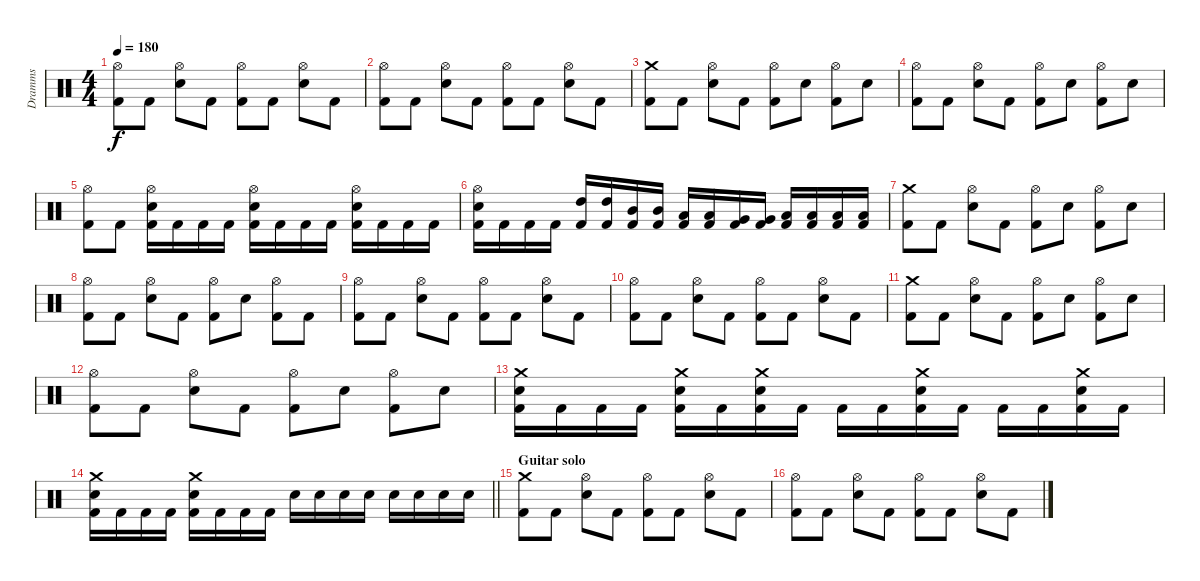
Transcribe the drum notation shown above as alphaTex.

\track ("Dramms" "Dramms") {instrument percussion}
\staff {score}
\articulation defaults
\ts (4 4)
\tempo 180
\clef neutral
\ks c
("Hi-Hat (open)" "Kick (hit) 2").8{dy f} "Kick (hit) 2".8 ("Hi-Hat (open)" "Electric Snare (hit)").8 "Kick (hit) 2".8 ("Hi-Hat (open)" "Kick (hit) 2").8 "Kick (hit) 2".8 ("Hi-Hat (open)" "Electric Snare (hit)").8 "Kick (hit) 2".8 |
("Hi-Hat (open)" "Kick (hit) 2").8 "Kick (hit) 2".8 ("Hi-Hat (open)" "Electric Snare (hit)").8 "Kick (hit) 2".8 ("Hi-Hat (open)" "Kick (hit) 2").8 "Kick (hit) 2".8 ("Hi-Hat (open)" "Electric Snare (hit)").8 "Kick (hit) 2".8 |
("Crash medium (hit)" "Kick (hit) 2").8 "Kick (hit) 2".8 ("Hi-Hat (open)" "Electric Snare (hit)").8 "Kick (hit) 2".8 ("Hi-Hat (open)" "Kick (hit) 2").8 "Electric Snare (hit)".8 ("Hi-Hat (open)" "Kick (hit) 2").8 "Electric Snare (hit)".8 |
("Hi-Hat (open)" "Kick (hit) 2").8 "Kick (hit) 2".8 ("Hi-Hat (open)" "Electric Snare (hit)").8 "Kick (hit) 2".8 ("Hi-Hat (open)" "Kick (hit) 2").8 "Electric Snare (hit)".8 ("Hi-Hat (open)" "Kick (hit) 2").8 "Electric Snare (hit)".8 |
("Hi-Hat (open)" "Kick (hit) 2").8 "Kick (hit) 2".8 ("Hi-Hat (open)" "Electric Snare (hit)" "Kick (hit) 2").16 "Kick (hit) 2".16 "Kick (hit) 2".16 "Kick (hit) 2".16 ("Hi-Hat (open)" "Electric Snare (hit)" "Kick (hit) 2").16 "Kick (hit) 2".16 "Kick (hit) 2".16 "Kick (hit) 2".16 ("Hi-Hat (open)" "Electric Snare (hit)" "Kick (hit) 2").16 "Kick (hit) 2".16 "Kick (hit) 2".16 "Kick (hit) 2".16 |
("Hi-Hat (open)" "Electric Snare (hit)" "Kick (hit) 2").16 "Kick (hit) 2".16 "Kick (hit) 2".16 "Kick (hit) 2".16 ("High Tom (hit)" "Kick (hit) 2").16 ("High Tom (hit)" "Kick (hit) 2").16 ("Mid Tom (hit)" "Kick (hit) 2").16 ("Mid Tom (hit)" "Kick (hit) 2").16 ("Low Tom (hit)" "Kick (hit) 2").16 ("Low Tom (hit)" "Kick (hit) 2").16 ("Very Low Tom (hit)" "Kick (hit) 2").16 ("Very Low Tom (hit)" "Kick (hit) 2").16 ("Low Tom (hit)" "Kick (hit) 2").16 ("Low Tom (hit)" "Kick (hit) 2").16 ("Low Floor Tom (hit)" "Kick (hit) 2").16 ("Low Floor Tom (hit)" "Kick (hit) 2").16 |
("Crash medium (hit)" "Kick (hit) 2").8 "Kick (hit) 2".8 ("Hi-Hat (open)" "Electric Snare (hit)").8 "Kick (hit) 2".8 ("Hi-Hat (open)" "Kick (hit) 2").8 "Electric Snare (hit)".8 ("Hi-Hat (open)" "Kick (hit) 2").8 "Electric Snare (hit)".8 |
("Hi-Hat (open)" "Kick (hit) 2").8 "Kick (hit) 2".8 ("Hi-Hat (open)" "Electric Snare (hit)").8 "Kick (hit) 2".8 ("Hi-Hat (open)" "Kick (hit) 2").8 "Electric Snare (hit)".8 ("Hi-Hat (open)" "Kick (hit) 2").8 "Kick (hit) 2".8 |
("Hi-Hat (open)" "Kick (hit) 2").8 "Kick (hit) 2".8 ("Hi-Hat (open)" "Electric Snare (hit)").8 "Kick (hit) 2".8 ("Hi-Hat (open)" "Kick (hit) 2").8 "Kick (hit) 2".8 ("Hi-Hat (open)" "Electric Snare (hit)").8 "Kick (hit) 2".8 |
("Hi-Hat (open)" "Kick (hit) 2").8 "Kick (hit) 2".8 ("Hi-Hat (open)" "Electric Snare (hit)").8 "Kick (hit) 2".8 ("Hi-Hat (open)" "Kick (hit) 2").8 "Kick (hit) 2".8 ("Hi-Hat (open)" "Electric Snare (hit)").8 "Kick (hit) 2".8 |
("Crash medium (hit)" "Kick (hit) 2").8 "Kick (hit) 2".8 ("Hi-Hat (open)" "Electric Snare (hit)").8 "Kick (hit) 2".8 ("Hi-Hat (open)" "Kick (hit) 2").8 "Electric Snare (hit)".8 ("Hi-Hat (open)" "Kick (hit) 2").8 "Electric Snare (hit)".8 |
("Hi-Hat (open)" "Kick (hit) 2").8 "Kick (hit) 2".8 ("Hi-Hat (open)" "Electric Snare (hit)").8 "Kick (hit) 2".8 ("Hi-Hat (open)" "Kick (hit) 2").8 "Electric Snare (hit)".8 ("Hi-Hat (open)" "Kick (hit) 2").8 "Electric Snare (hit)".8 |
("Crash medium (hit)" "Electric Snare (hit)" "Kick (hit) 2").16 "Kick (hit) 2".16 "Kick (hit) 2".16 "Kick (hit) 2".16 ("Crash medium (hit)" "Electric Snare (hit)" "Kick (hit) 2").16 "Kick (hit) 2".16 ("Crash medium (hit)" "Electric Snare (hit)" "Kick (hit) 2").16 "Kick (hit) 2".16 "Kick (hit) 2".16 "Kick (hit) 2".16 ("Crash medium (hit)" "Electric Snare (hit)" "Kick (hit) 2").16 "Kick (hit) 2".16 "Kick (hit) 2".16 "Kick (hit) 2".16 ("Crash medium (hit)" "Electric Snare (hit)" "Kick (hit) 2").16 "Kick (hit) 2".16 |
\barLineRight lightlight
("Crash medium (hit)" "Electric Snare (hit)" "Kick (hit) 2").16 "Kick (hit) 2".16 "Kick (hit) 2".16 "Kick (hit) 2".16 ("Crash medium (hit)" "Electric Snare (hit)" "Kick (hit) 2").16 "Kick (hit) 2".16 "Kick (hit) 2".16 "Kick (hit) 2".16 "Electric Snare (hit)".16 "Electric Snare (hit)".16 "Electric Snare (hit)".16 "Electric Snare (hit)".16 "Electric Snare (hit)".16 "Electric Snare (hit)".16 "Electric Snare (hit)".16 "Electric Snare (hit)".16 |
\section ("" "Guitar solo")
("Crash medium (hit)" "Kick (hit) 2").8 "Kick (hit) 2".8 ("Hi-Hat (open)" "Electric Snare (hit)").8 "Kick (hit) 2".8 ("Hi-Hat (open)" "Kick (hit) 2").8 "Kick (hit) 2".8 ("Hi-Hat (open)" "Electric Snare (hit)").8 "Kick (hit) 2".8 |
("Hi-Hat (open)" "Kick (hit) 2").8 "Kick (hit) 2".8 ("Hi-Hat (open)" "Electric Snare (hit)").8 "Kick (hit) 2".8 ("Hi-Hat (open)" "Kick (hit) 2").8 "Kick (hit) 2".8 ("Hi-Hat (open)" "Electric Snare (hit)").8 "Kick (hit) 2".8
